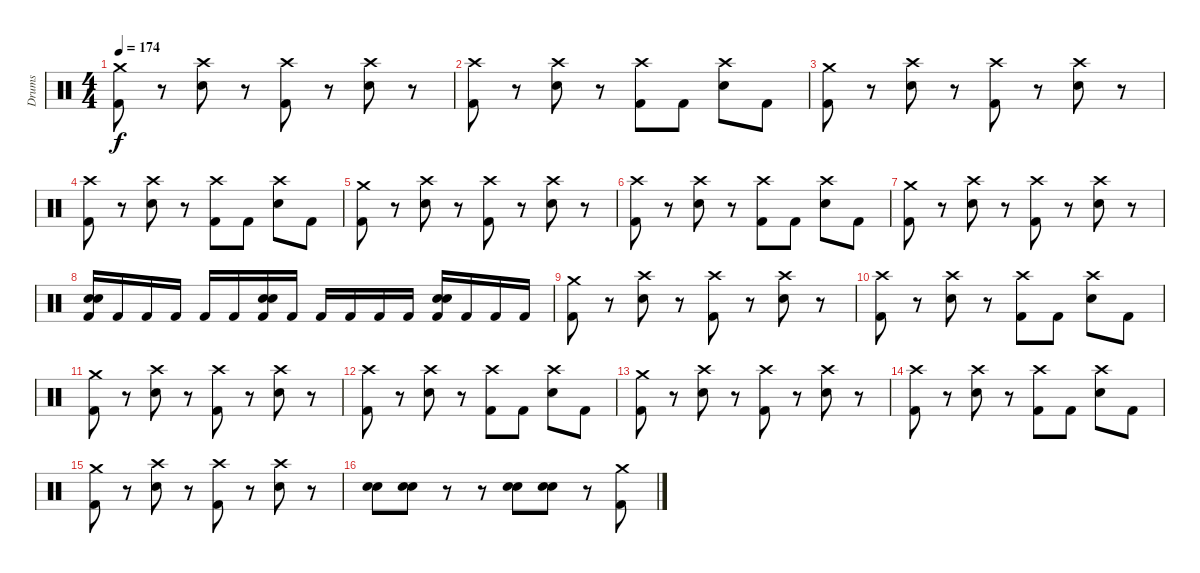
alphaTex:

\track ("Drums" "Drums") {instrument percussion}
\staff {score}
\articulation defaults
\ts (4 4)
\tempo 174
\clef neutral
\ks c
("Crash medium (hit)" "Kick (hit) 2").8{dy f} r.8 ("Crash high (hit)" "Electric Snare (hit)").8 r.8 ("Crash high (hit)" "Kick (hit) 2").8 r.8 ("Crash high (hit)" "Electric Snare (hit)").8 r.8 |
("Crash high (hit)" "Kick (hit) 2").8 r.8 ("Crash high (hit)" "Electric Snare (hit)").8 r.8 ("Crash high (hit)" "Kick (hit) 2").8 "Kick (hit) 2".8 ("Crash high (hit)" "Electric Snare (hit)").8 "Kick (hit) 2".8 |
("Crash medium (hit)" "Kick (hit) 2").8 r.8 ("Crash high (hit)" "Electric Snare (hit)").8 r.8 ("Crash high (hit)" "Kick (hit) 2").8 r.8 ("Crash high (hit)" "Electric Snare (hit)").8 r.8 |
("Crash high (hit)" "Kick (hit) 2").8 r.8 ("Crash high (hit)" "Electric Snare (hit)").8 r.8 ("Crash high (hit)" "Kick (hit) 2").8 "Kick (hit) 2".8 ("Crash high (hit)" "Electric Snare (hit)").8 "Kick (hit) 2".8 |
("Crash medium (hit)" "Kick (hit) 2").8 r.8 ("Crash high (hit)" "Electric Snare (hit)").8 r.8 ("Crash high (hit)" "Kick (hit) 2").8 r.8 ("Crash high (hit)" "Electric Snare (hit)").8 r.8 |
("Crash high (hit)" "Kick (hit) 2").8 r.8 ("Crash high (hit)" "Electric Snare (hit)").8 r.8 ("Crash high (hit)" "Kick (hit) 2").8 "Kick (hit) 2".8 ("Crash high (hit)" "Electric Snare (hit)").8 "Kick (hit) 2".8 |
("Crash medium (hit)" "Kick (hit) 2").8 r.8 ("Crash high (hit)" "Electric Snare (hit)").8 r.8 ("Crash high (hit)" "Kick (hit) 2").8 r.8 ("Crash high (hit)" "Electric Snare (hit)").8 r.8 |
("Electric Snare (hit)" "Electric Snare (hit)" "Kick (hit) 2").16 "Kick (hit) 2".16 "Kick (hit) 2".16 "Kick (hit) 2".16 "Kick (hit) 2".16 "Kick (hit) 2".16 ("Electric Snare (hit)" "Electric Snare (hit)" "Kick (hit) 2").16 "Kick (hit) 2".16 "Kick (hit) 2".16 "Kick (hit) 2".16 "Kick (hit) 2".16 "Kick (hit) 2".16 ("Electric Snare (hit)" "Electric Snare (hit)" "Kick (hit) 2").16 "Kick (hit) 2".16 "Kick (hit) 2".16 "Kick (hit) 2".16 |
("Crash medium (hit)" "Kick (hit) 2").8 r.8 ("Crash high (hit)" "Electric Snare (hit)").8 r.8 ("Crash high (hit)" "Kick (hit) 2").8 r.8 ("Crash high (hit)" "Electric Snare (hit)").8 r.8 |
("Crash high (hit)" "Kick (hit) 2").8 r.8 ("Crash high (hit)" "Electric Snare (hit)").8 r.8 ("Crash high (hit)" "Kick (hit) 2").8 "Kick (hit) 2".8 ("Crash high (hit)" "Electric Snare (hit)").8 "Kick (hit) 2".8 |
("Crash medium (hit)" "Kick (hit) 2").8 r.8 ("Crash high (hit)" "Electric Snare (hit)").8 r.8 ("Crash high (hit)" "Kick (hit) 2").8 r.8 ("Crash high (hit)" "Electric Snare (hit)").8 r.8 |
("Crash high (hit)" "Kick (hit) 2").8 r.8 ("Crash high (hit)" "Electric Snare (hit)").8 r.8 ("Crash high (hit)" "Kick (hit) 2").8 "Kick (hit) 2".8 ("Crash high (hit)" "Electric Snare (hit)").8 "Kick (hit) 2".8 |
("Crash medium (hit)" "Kick (hit) 2").8 r.8 ("Crash high (hit)" "Electric Snare (hit)").8 r.8 ("Crash high (hit)" "Kick (hit) 2").8 r.8 ("Crash high (hit)" "Electric Snare (hit)").8 r.8 |
("Crash high (hit)" "Kick (hit) 2").8 r.8 ("Crash high (hit)" "Electric Snare (hit)").8 r.8 ("Crash high (hit)" "Kick (hit) 2").8 "Kick (hit) 2".8 ("Crash high (hit)" "Electric Snare (hit)").8 "Kick (hit) 2".8 |
("Crash medium (hit)" "Kick (hit) 2").8 r.8 ("Crash high (hit)" "Electric Snare (hit)").8 r.8 ("Crash high (hit)" "Kick (hit) 2").8 r.8 ("Crash high (hit)" "Electric Snare (hit)").8 r.8 |
("Electric Snare (hit)" "Electric Snare (hit)").8 ("Electric Snare (hit)" "Electric Snare (hit)").8 r.8 r.8 ("Electric Snare (hit)" "Electric Snare (hit)").8 ("Electric Snare (hit)" "Electric Snare (hit)").8 r.8 ("Crash medium (hit)" "Kick (hit) 2").8
